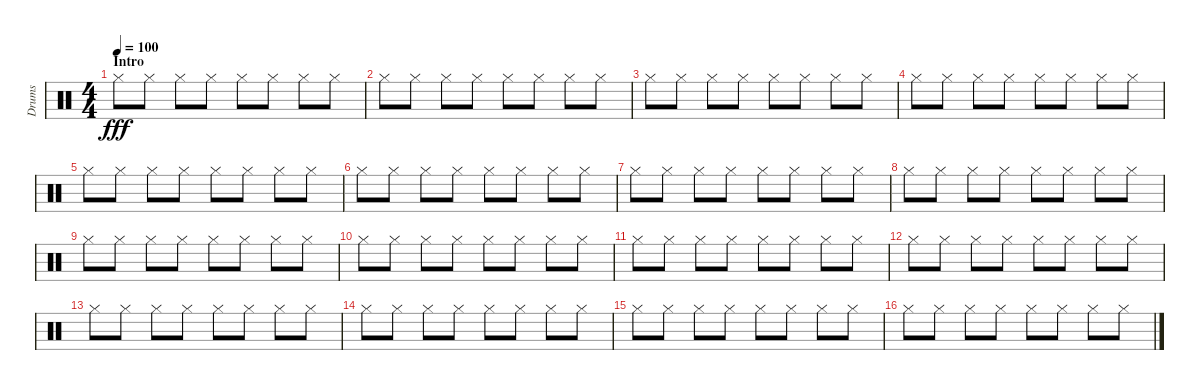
\defaultSystemsLayout 4
\bracketExtendMode groupsimilarinstruments
\otherSystemsTrackNameOrientation horizontal
\track ("Prakarsh" "Drums") {instrument percussion}
\staff {score}
\articulation defaults
\ts (4 4)
\section ("" "Intro")
\tempo 100
\clef neutral
\ks c "Hi-Hat (closed)".8{dy fff beam Down} "Hi-Hat (closed)".8{beam Down} "Hi-Hat (closed)".8{beam Down} "Hi-Hat (closed)".8{beam Down} "Hi-Hat (closed)".8{beam Down} "Hi-Hat (closed)".8{beam Down} "Hi-Hat (closed)".8{beam Down} "Hi-Hat (closed)".8{beam Down}
|
"Hi-Hat (closed)".8{beam Down} "Hi-Hat (closed)".8{beam Down} "Hi-Hat (closed)".8{beam Down} "Hi-Hat (closed)".8{beam Down} "Hi-Hat (closed)".8{beam Down} "Hi-Hat (closed)".8{beam Down} "Hi-Hat (closed)".8{beam Down} "Hi-Hat (closed)".8{beam Down} |
"Hi-Hat (closed)".8{beam Down} "Hi-Hat (closed)".8{beam Down} "Hi-Hat (closed)".8{beam Down} "Hi-Hat (closed)".8{beam Down} "Hi-Hat (closed)".8{beam Down} "Hi-Hat (closed)".8{beam Down} "Hi-Hat (closed)".8{beam Down} "Hi-Hat (closed)".8{beam Down} |
"Hi-Hat (closed)".8{beam Down} "Hi-Hat (closed)".8{beam Down} "Hi-Hat (closed)".8{beam Down} "Hi-Hat (closed)".8{beam Down} "Hi-Hat (closed)".8{beam Down} "Hi-Hat (closed)".8{beam Down} "Hi-Hat (closed)".8{beam Down} "Hi-Hat (closed)".8{beam Down} |
"Hi-Hat (closed)".8{beam Down} "Hi-Hat (closed)".8{beam Down} "Hi-Hat (closed)".8{beam Down} "Hi-Hat (closed)".8{beam Down} "Hi-Hat (closed)".8{beam Down} "Hi-Hat (closed)".8{beam Down} "Hi-Hat (closed)".8{beam Down} "Hi-Hat (closed)".8{beam Down} |
"Hi-Hat (closed)".8{beam Down} "Hi-Hat (closed)".8{beam Down} "Hi-Hat (closed)".8{beam Down} "Hi-Hat (closed)".8{beam Down} "Hi-Hat (closed)".8{beam Down} "Hi-Hat (closed)".8{beam Down} "Hi-Hat (closed)".8{beam Down} "Hi-Hat (closed)".8{beam Down} |
"Hi-Hat (closed)".8{beam Down} "Hi-Hat (closed)".8{beam Down} "Hi-Hat (closed)".8{beam Down} "Hi-Hat (closed)".8{beam Down} "Hi-Hat (closed)".8{beam Down} "Hi-Hat (closed)".8{beam Down} "Hi-Hat (closed)".8{beam Down} "Hi-Hat (closed)".8{beam Down} |
"Hi-Hat (closed)".8{beam Down} "Hi-Hat (closed)".8{beam Down} "Hi-Hat (closed)".8{beam Down} "Hi-Hat (closed)".8{beam Down} "Hi-Hat (closed)".8{beam Down} "Hi-Hat (closed)".8{beam Down} "Hi-Hat (closed)".8{beam Down} "Hi-Hat (closed)".8{beam Down} |
"Hi-Hat (closed)".8{beam Down} "Hi-Hat (closed)".8{beam Down} "Hi-Hat (closed)".8{beam Down} "Hi-Hat (closed)".8{beam Down} "Hi-Hat (closed)".8{beam Down} "Hi-Hat (closed)".8{beam Down} "Hi-Hat (closed)".8{beam Down} "Hi-Hat (closed)".8{beam Down} |
"Hi-Hat (closed)".8{beam Down} "Hi-Hat (closed)".8{beam Down} "Hi-Hat (closed)".8{beam Down} "Hi-Hat (closed)".8{beam Down} "Hi-Hat (closed)".8{beam Down} "Hi-Hat (closed)".8{beam Down} "Hi-Hat (closed)".8{beam Down} "Hi-Hat (closed)".8{beam Down} |
"Hi-Hat (closed)".8{beam Down} "Hi-Hat (closed)".8{beam Down} "Hi-Hat (closed)".8{beam Down} "Hi-Hat (closed)".8{beam Down} "Hi-Hat (closed)".8{beam Down} "Hi-Hat (closed)".8{beam Down} "Hi-Hat (closed)".8{beam Down} "Hi-Hat (closed)".8{beam Down} |
"Hi-Hat (closed)".8{beam Down} "Hi-Hat (closed)".8{beam Down} "Hi-Hat (closed)".8{beam Down} "Hi-Hat (closed)".8{beam Down} "Hi-Hat (closed)".8{beam Down} "Hi-Hat (closed)".8{beam Down} "Hi-Hat (closed)".8{beam Down} "Hi-Hat (closed)".8{beam Down} |
"Hi-Hat (closed)".8{beam Down} "Hi-Hat (closed)".8{beam Down} "Hi-Hat (closed)".8{beam Down} "Hi-Hat (closed)".8{beam Down} "Hi-Hat (closed)".8{beam Down} "Hi-Hat (closed)".8{beam Down} "Hi-Hat (closed)".8{beam Down} "Hi-Hat (closed)".8{beam Down} |
"Hi-Hat (closed)".8{beam Down} "Hi-Hat (closed)".8{beam Down} "Hi-Hat (closed)".8{beam Down} "Hi-Hat (closed)".8{beam Down} "Hi-Hat (closed)".8{beam Down} "Hi-Hat (closed)".8{beam Down} "Hi-Hat (closed)".8{beam Down} "Hi-Hat (closed)".8{beam Down} |
"Hi-Hat (closed)".8{beam Down} "Hi-Hat (closed)".8{beam Down} "Hi-Hat (closed)".8{beam Down} "Hi-Hat (closed)".8{beam Down} "Hi-Hat (closed)".8{beam Down} "Hi-Hat (closed)".8{beam Down} "Hi-Hat (closed)".8{beam Down} "Hi-Hat (closed)".8{beam Down} |
"Hi-Hat (closed)".8{beam Down} "Hi-Hat (closed)".8{beam Down} "Hi-Hat (closed)".8{beam Down} "Hi-Hat (closed)".8{beam Down} "Hi-Hat (closed)".8{beam Down} "Hi-Hat (closed)".8{beam Down} "Hi-Hat (closed)".8{beam Down} "Hi-Hat (closed)".8{beam Down}
